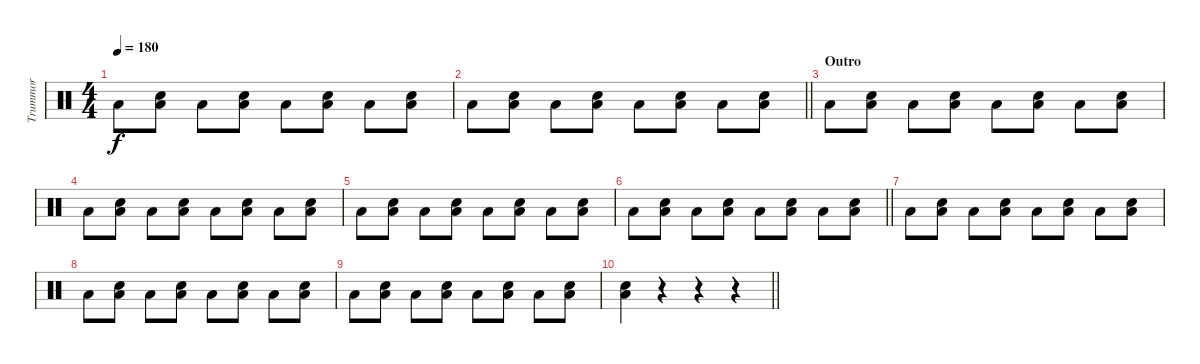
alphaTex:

\track ("Trummor" "Trummor") {instrument percussion}
\staff {score}
\articulation defaults
\ts (4 4)
\tempo 180
\clef neutral
\ks c "Low Tom (hit)".8{dy f}
("Low Tom (hit)" "Snare (hit) 2").8 "Low Tom (hit)".8 ("Low Tom (hit)" "Snare (hit) 2").8 "Low Tom (hit)".8 ("Low Tom (hit)" "Snare (hit) 2").8 "Low Tom (hit)".8 ("Low Tom (hit)" "Snare (hit) 2").8 |
\barLineRight lightlight "Low Tom (hit)".8
("Low Tom (hit)" "Snare (hit) 2").8 "Low Tom (hit)".8 ("Low Tom (hit)" "Snare (hit) 2").8 "Low Tom (hit)".8 ("Low Tom (hit)" "Snare (hit) 2").8 "Low Tom (hit)".8 ("Low Tom (hit)" "Snare (hit) 2").8 |
\section ("" "Outro")
"Low Tom (hit)".8 ("Low Tom (hit)" "Snare (hit) 2").8 "Low Tom (hit)".8 ("Low Tom (hit)" "Snare (hit) 2").8 "Low Tom (hit)".8 ("Low Tom (hit)" "Snare (hit) 2").8 "Low Tom (hit)".8 ("Low Tom (hit)" "Snare (hit) 2").8 |
"Low Tom (hit)".8 ("Low Tom (hit)" "Snare (hit) 2").8 "Low Tom (hit)".8 ("Low Tom (hit)" "Snare (hit) 2").8 "Low Tom (hit)".8 ("Low Tom (hit)" "Snare (hit) 2").8 "Low Tom (hit)".8 ("Low Tom (hit)" "Snare (hit) 2").8 |
"Low Tom (hit)".8 ("Low Tom (hit)" "Snare (hit) 2").8 "Low Tom (hit)".8 ("Low Tom (hit)" "Snare (hit) 2").8 "Low Tom (hit)".8 ("Low Tom (hit)" "Snare (hit) 2").8 "Low Tom (hit)".8 ("Low Tom (hit)" "Snare (hit) 2").8 |
\barLineRight lightlight "Low Tom (hit)".8
("Low Tom (hit)" "Snare (hit) 2").8 "Low Tom (hit)".8 ("Low Tom (hit)" "Snare (hit) 2").8 "Low Tom (hit)".8 ("Low Tom (hit)" "Snare (hit) 2").8 "Low Tom (hit)".8 ("Low Tom (hit)" "Snare (hit) 2").8 |
"Low Tom (hit)".8 ("Low Tom (hit)" "Snare (hit) 2").8 "Low Tom (hit)".8 ("Low Tom (hit)" "Snare (hit) 2").8 "Low Tom (hit)".8 ("Low Tom (hit)" "Snare (hit) 2").8 "Low Tom (hit)".8 ("Low Tom (hit)" "Snare (hit) 2").8 |
"Low Tom (hit)".8 ("Low Tom (hit)" "Snare (hit) 2").8 "Low Tom (hit)".8 ("Low Tom (hit)" "Snare (hit) 2").8 "Low Tom (hit)".8 ("Low Tom (hit)" "Snare (hit) 2").8 "Low Tom (hit)".8 ("Low Tom (hit)" "Snare (hit) 2").8 |
"Low Tom (hit)".8 ("Low Tom (hit)" "Snare (hit) 2").8 "Low Tom (hit)".8 ("Low Tom (hit)" "Snare (hit) 2").8 "Low Tom (hit)".8 ("Low Tom (hit)" "Snare (hit) 2").8 "Low Tom (hit)".8 ("Low Tom (hit)" "Snare (hit) 2").8 |
\barLineRight lightlight
("Low Tom (hit)" "Snare (hit) 2").4 r.4 r.4 r.4
